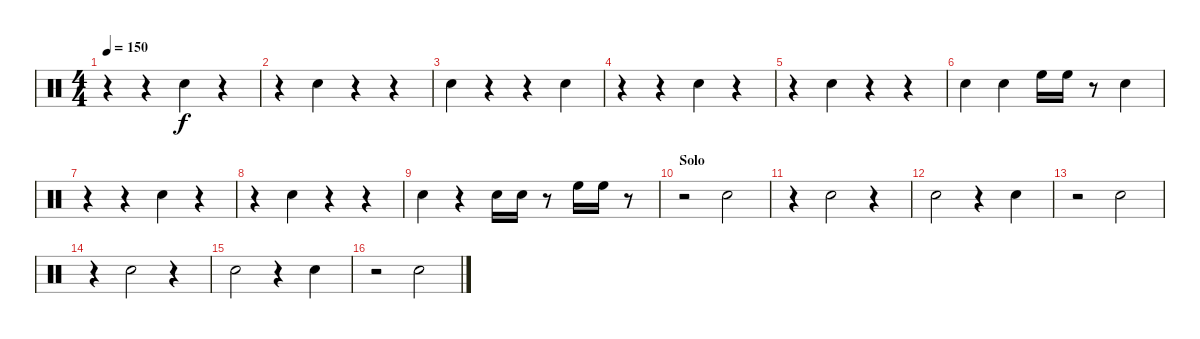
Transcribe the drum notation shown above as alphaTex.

\track "" {instrument percussion}
\staff {score}
\articulation defaults
\ts (4 4)
\tempo 150
\clef neutral
\ks c
r.4{dy f} r.4 "Electric Snare (hit)".4 r.4 |
r.4 "Electric Snare (hit)".4 r.4 r.4 |
"Electric Snare (hit)".4 r.4 r.4 "Electric Snare (hit)".4 |
r.4 r.4 "Electric Snare (hit)".4 r.4 |
r.4 "Electric Snare (hit)".4 r.4 r.4 |
"Electric Snare (hit)".4 "Electric Snare (hit)".4 "High Floor Tom (hit)".16 "High Floor Tom (hit)".16 r.8 "Electric Snare (hit)".4 |
r.4 r.4 "Electric Snare (hit)".4 r.4 |
r.4 "Electric Snare (hit)".4 r.4 r.4 |
"Electric Snare (hit)".4 r.4 "Electric Snare (hit)".16 "Electric Snare (hit)".16 r.8 "High Floor Tom (hit)".16 "High Floor Tom (hit)".16 r.8 |
\section ("" "Solo")
r.2 "Electric Snare (hit)".2 |
r.4 "Electric Snare (hit)".2 r.4 |
"Electric Snare (hit)".2 r.4 "Electric Snare (hit)".4 |
r.2 "Electric Snare (hit)".2 |
r.4 "Electric Snare (hit)".2 r.4 |
"Electric Snare (hit)".2 r.4 "Electric Snare (hit)".4 |
r.2 "Electric Snare (hit)".2
